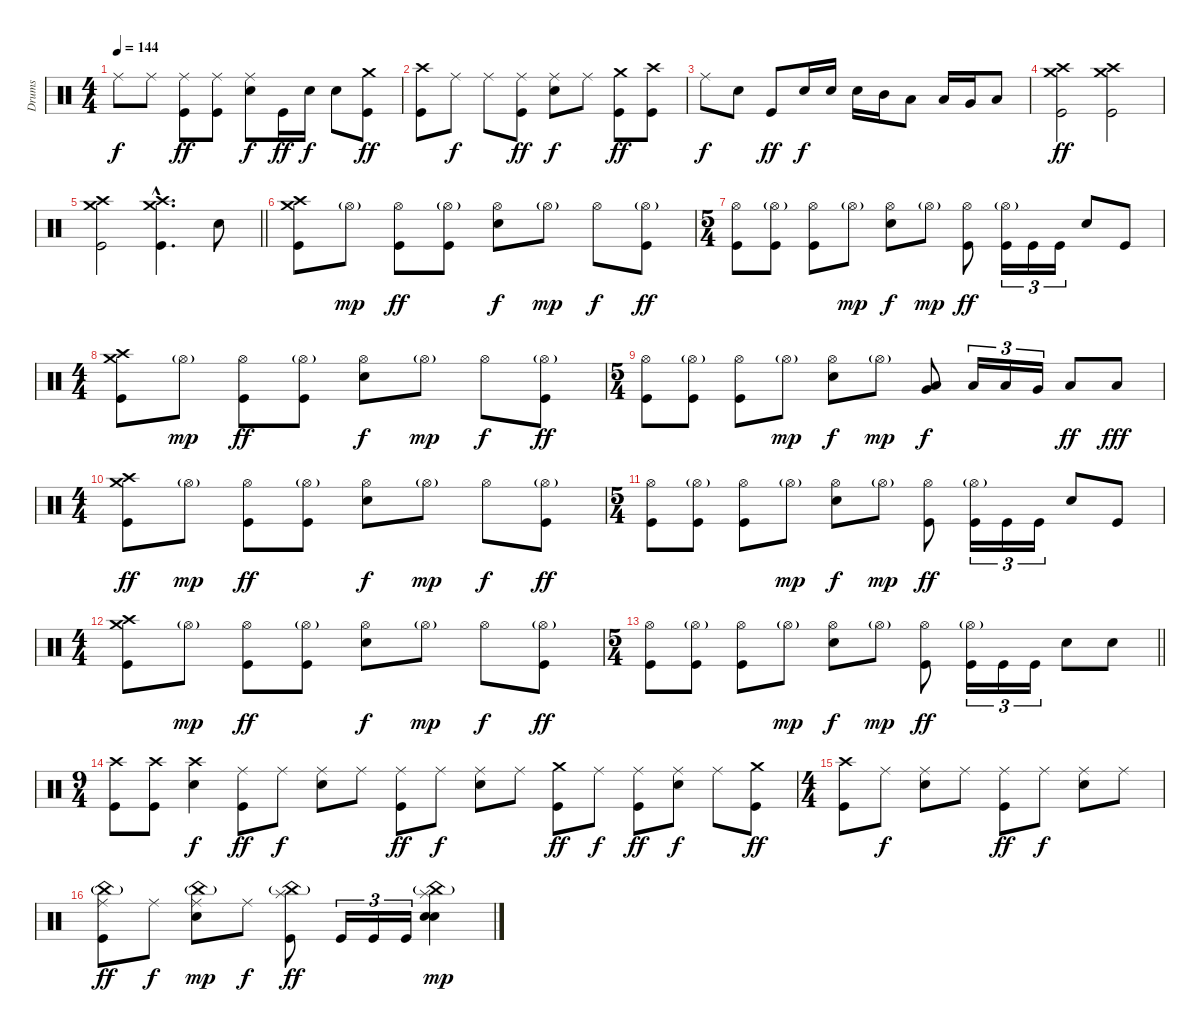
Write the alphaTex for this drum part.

\track ("Drums" "Drums") {instrument percussion}
\staff {score}
\articulation defaults
\ts (4 4)
\tempo 144
\clef neutral
\ks c "Ride (middle)".8{dy f} "Ride (middle)".8
("Ride (middle)" "Kick (hit)").8{dy ff} ("Ride (middle)" "Kick (hit)").8 ("Ride (middle)" "Snare (hit) 2").8{dy f} "Kick (hit)".16{dy ff} "Snare (hit) 2".16{dy f} "Snare (hit) 2".8 ("Crash medium (hit)" "Kick (hit)").8{dy ff} |
("Crash high (hit)" "Kick (hit)").8 "Ride (middle)".8{dy f} "Ride (middle)".8 ("Ride (middle)" "Kick (hit)").8{dy ff} ("Ride (middle)" "Snare (hit) 2").8{dy f} "Ride (middle)".8 ("Crash medium (hit)" "Kick (hit)").8{dy ff} ("Crash high (hit)" "Kick (hit)").8 |
"Ride (middle)".8{dy f} "Snare (hit) 2".8 "Kick (hit)".8{dy ff} "Snare (hit) 2".16{dy f} "Snare (hit) 2".16 "Snare (hit) 2".16 "Mid Tom (hit)".16 "Low Tom (hit)".8 "Low Tom (hit)".16 "Very Low Tom (hit)".16 "Low Floor Tom (hit)".8 |
("Crash medium (hit)" "Crash high (hit)" "Kick (hit)").2{dy ff} ("Crash medium (hit)" "Crash high (hit)" "Kick (hit)").2 |
\barLineRight lightlight
("Crash medium (hit)" "Crash high (hit)" "Kick (hit)").2 ("Crash medium (hit)"{hac} "Crash high (hit)"{hac} "Kick (hit)"{hac}).4{d} "Snare (hit) 2".8 |
("Crash medium (hit)" "Crash high (hit)" "Kick (hit)").8 "Hi-Hat (open)"{g}.8{dy mp} ("Hi-Hat (open)" "Kick (hit)").8{dy ff} ("Hi-Hat (open)"{g} "Kick (hit)").8 ("Hi-Hat (open)" "Snare (hit) 2").8{dy f} "Hi-Hat (open)"{g}.8{dy mp} "Hi-Hat (open)".8{dy f} ("Hi-Hat (open)"{g} "Kick (hit)").8{dy ff} |
\ts (5 4)
("Hi-Hat (open)" "Kick (hit)").8 ("Hi-Hat (open)"{g} "Kick (hit)").8 ("Hi-Hat (open)" "Kick (hit)").8 "Hi-Hat (open)"{g}.8{dy mp} ("Hi-Hat (open)" "Snare (hit) 2").8{dy f} "Hi-Hat (open)"{g}.8{dy mp} ("Hi-Hat (open)" "Kick (hit)").8{dy ff} ("Hi-Hat (open)"{g} "Kick (hit)").16{tu (3 2)} "Kick (hit)".16{tu (3 2)} "Kick (hit)".16{tu (3 2)} "Snare (hit) 2".8 "Kick (hit)".8 |
\ts (4 4)
("Crash medium (hit)" "Crash high (hit)" "Kick (hit)").8 "Hi-Hat (open)"{g}.8{dy mp} ("Hi-Hat (open)" "Kick (hit)").8{dy ff} ("Hi-Hat (open)"{g} "Kick (hit)").8 ("Hi-Hat (open)" "Snare (hit) 2").8{dy f} "Hi-Hat (open)"{g}.8{dy mp} "Hi-Hat (open)".8{dy f} ("Hi-Hat (open)"{g} "Kick (hit)").8{dy ff} |
\ts (5 4)
("Hi-Hat (open)" "Kick (hit)").8 ("Hi-Hat (open)"{g} "Kick (hit)").8 ("Hi-Hat (open)" "Kick (hit)").8 "Hi-Hat (open)"{g}.8{dy mp} ("Hi-Hat (open)" "Snare (hit) 2").8{dy f} "Hi-Hat (open)"{g}.8{dy mp} ("Low Tom (hit)" "Very Low Tom (hit)").8{dy f} "Low Tom (hit)".16{tu (3 2)} "Low Tom (hit)".16{tu (3 2)} "Very Low Tom (hit)".16{tu (3 2)} "Low Floor Tom (hit)".8{dy ff} "Low Floor Tom (hit)".8{dy fff} |
\ts (4 4)
("Crash medium (hit)" "Crash high (hit)" "Kick (hit)").8{dy ff} "Hi-Hat (open)"{g}.8{dy mp} ("Hi-Hat (open)" "Kick (hit)").8{dy ff} ("Hi-Hat (open)"{g} "Kick (hit)").8 ("Hi-Hat (open)" "Snare (hit) 2").8{dy f} "Hi-Hat (open)"{g}.8{dy mp} "Hi-Hat (open)".8{dy f} ("Hi-Hat (open)"{g} "Kick (hit)").8{dy ff} |
\ts (5 4)
("Hi-Hat (open)" "Kick (hit)").8 ("Hi-Hat (open)"{g} "Kick (hit)").8 ("Hi-Hat (open)" "Kick (hit)").8 "Hi-Hat (open)"{g}.8{dy mp} ("Hi-Hat (open)" "Snare (hit) 2").8{dy f} "Hi-Hat (open)"{g}.8{dy mp} ("Hi-Hat (open)" "Kick (hit)").8{dy ff} ("Hi-Hat (open)"{g} "Kick (hit)").16{tu (3 2)} "Kick (hit)".16{tu (3 2)} "Kick (hit)".16{tu (3 2)} "Snare (hit) 2".8 "Kick (hit)".8 |
\ts (4 4)
("Crash medium (hit)" "Crash high (hit)" "Kick (hit)").8 "Hi-Hat (open)"{g}.8{dy mp} ("Hi-Hat (open)" "Kick (hit)").8{dy ff} ("Hi-Hat (open)"{g} "Kick (hit)").8 ("Hi-Hat (open)" "Snare (hit) 2").8{dy f} "Hi-Hat (open)"{g}.8{dy mp} "Hi-Hat (open)".8{dy f} ("Hi-Hat (open)"{g} "Kick (hit)").8{dy ff} |
\ts (5 4)
\barLineRight lightlight
("Hi-Hat (open)" "Kick (hit)").8 ("Hi-Hat (open)"{g} "Kick (hit)").8 ("Hi-Hat (open)" "Kick (hit)").8 "Hi-Hat (open)"{g}.8{dy mp} ("Hi-Hat (open)" "Snare (hit) 2").8{dy f} "Hi-Hat (open)"{g}.8{dy mp} ("Hi-Hat (open)" "Kick (hit)").8{dy ff} ("Hi-Hat (open)"{g} "Kick (hit)").16{tu (3 2)} "Kick (hit)".16{tu (3 2)} "Kick (hit)".16{tu (3 2)} "Snare (hit) 2".8 "Snare (hit) 2".8 |
\ts (9 4)
("Crash high (hit)" "Kick (hit)").8 ("Crash high (hit)" "Kick (hit)").8 ("Crash high (hit)" "Snare (hit) 2").4{dy f} ("Ride (middle)" "Kick (hit)").8{dy ff} "Ride (middle)".8{dy f} ("Ride (middle)" "Snare (hit) 2").8 "Ride (middle)".8 ("Ride (middle)" "Kick (hit)").8{dy ff} "Ride (middle)".8{dy f} ("Ride (middle)" "Snare (hit) 2").8 "Ride (middle)".8 ("Crash medium (hit)" "Kick (hit)").8{dy ff} "Ride (middle)".8{dy f} ("Ride (middle)" "Kick (hit)").8{dy ff} ("Ride (middle)" "Snare (hit) 2").8{dy f} "Ride (middle)".8 ("Crash medium (hit)" "Kick (hit)").8{dy ff} |
\ts (4 4)
("Crash high (hit)" "Kick (hit)").8 "Ride (middle)".8{dy f} ("Ride (middle)" "Snare (hit) 2").8 "Ride (middle)".8 ("Ride (middle)" "Kick (hit)").8{dy ff} "Ride (middle)".8{dy f} ("Ride (middle)" "Snare (hit) 2").8 "Ride (middle)".8 |
("Ride (middle)" "China (hit)"{g} "Kick (hit)").8{dy ff} "Ride (middle)".8{dy f} ("Ride (middle)" "China (hit)"{g} "Snare (hit) 2").8{dy mp} "Ride (middle)".8{dy f} ("Splash (hit)" "China (hit)"{g} "Kick (hit)").8{dy ff} "Kick (hit)".16{tu (3 2)} "Kick (hit)".16{tu (3 2)} "Kick (hit)".16{tu (3 2)} ("Splash (hit)" "China (hit)"{g} "Snare (hit) 2" "Snare (hit) 2").4{dy mp}
